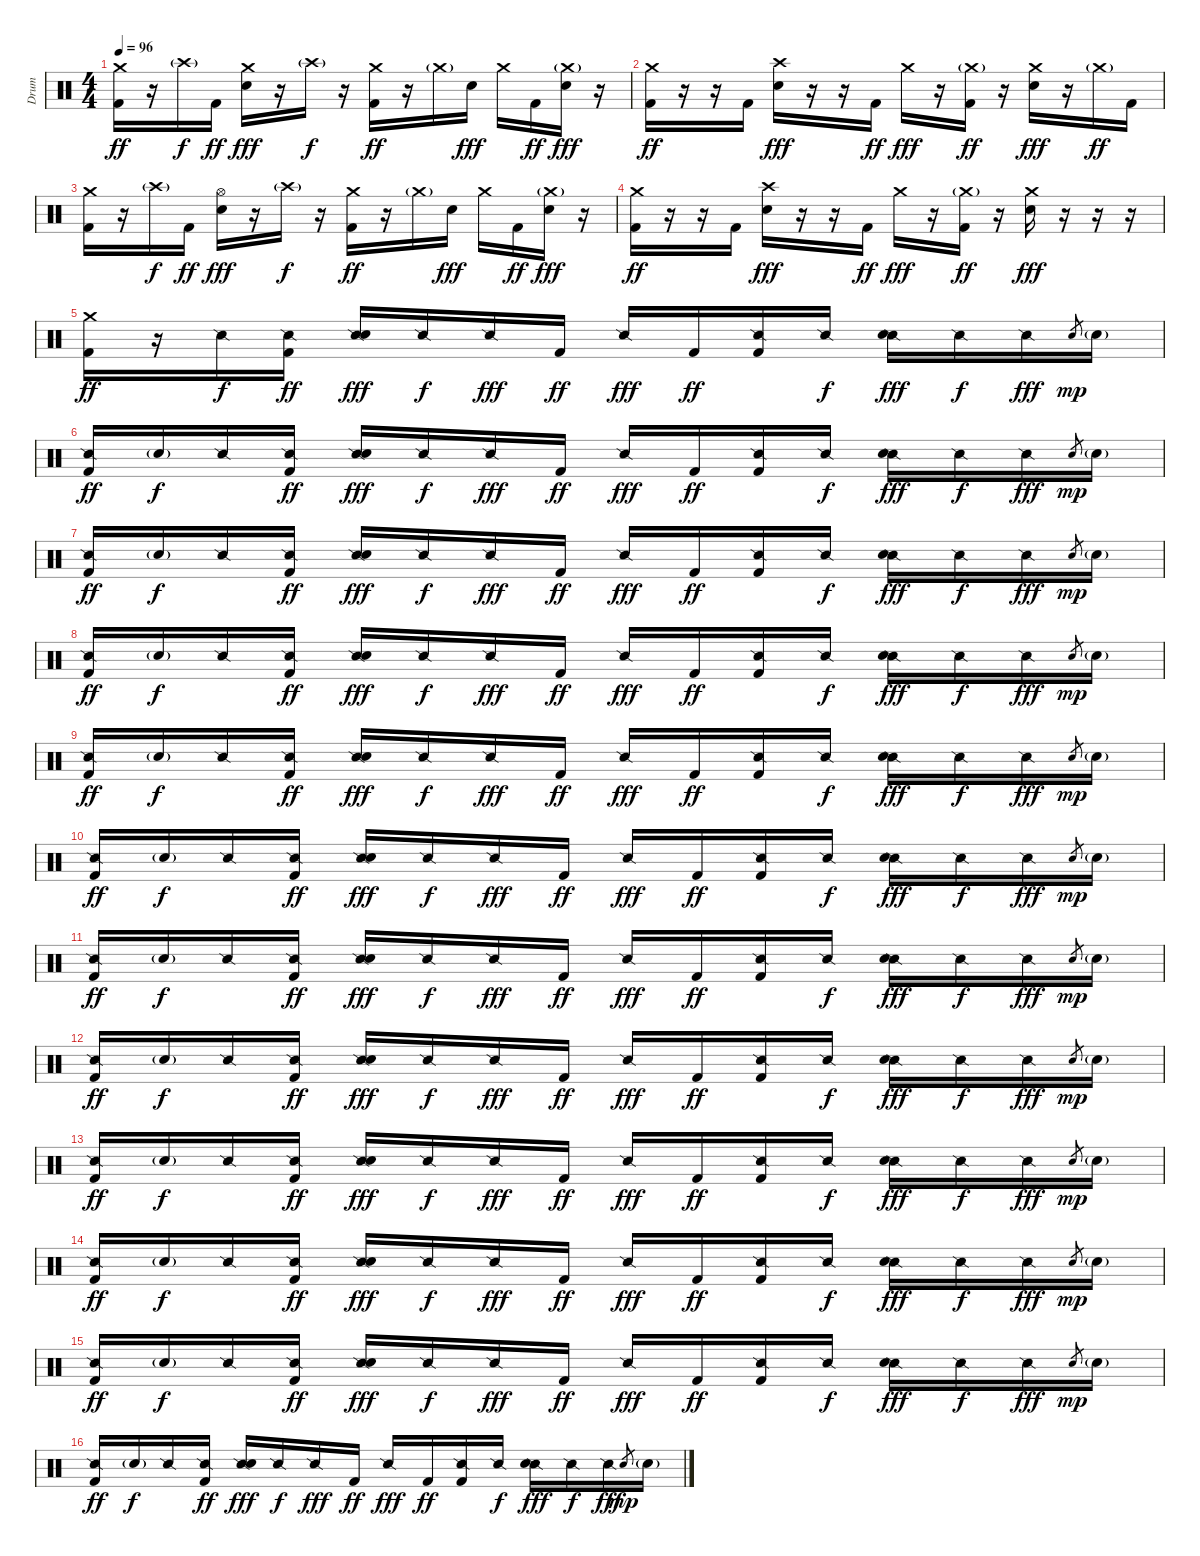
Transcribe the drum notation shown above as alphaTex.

\track ("Drum" "Drum") {instrument percussion}
\staff {score}
\articulation defaults
\ts (4 4)
\tempo 96
\clef neutral
\ks c
("Crash medium (hit)" "Kick (hit) 2").16{dy ff} r.16 "Crash high (hit)"{g}.16{dy f} "Kick (hit) 2".16{dy ff} ("Crash medium (hit)" "Snare (hit) 2").16{dy fff} r.16 "Crash high (hit)"{g}.16{dy f} r.16 ("Crash medium (hit)" "Kick (hit) 2").16{dy ff} r.16 "Crash medium (hit)"{g}.16 "Snare (hit) 2".16{dy fff} "Crash medium (hit)".16 "Kick (hit) 2".16{dy ff} ("Crash medium (hit)"{g} "Snare (hit) 2").16{dy fff} r.16 |
("Crash medium (hit)" "Kick (hit) 2").16{dy ff} r.16 r.16 "Kick (hit) 2".16 ("Crash high (hit)" "Snare (hit) 2").16{dy fff} r.16 r.16 "Kick (hit) 2".16{dy ff} "Crash medium (hit)".16{dy fff} r.16 ("Crash medium (hit)"{g} "Kick (hit) 2").16{dy ff} r.16 ("Crash medium (hit)" "Snare (hit) 2").16{dy fff} r.16 "Crash medium (hit)"{g}.16{dy ff} "Kick (hit) 2".16 |
("Crash medium (hit)" "Kick (hit) 2").16 r.16 "Crash high (hit)"{g}.16{dy f} "Kick (hit) 2".16{dy ff} ("Hi-Hat (open)" "Snare (hit) 2").16{dy fff} r.16 "Crash high (hit)"{g}.16{dy f} r.16 ("Crash medium (hit)" "Kick (hit) 2").16{dy ff} r.16 "Crash medium (hit)"{g}.16 "Snare (hit) 2".16{dy fff} "Crash medium (hit)".16 "Kick (hit) 2".16{dy ff} ("Crash medium (hit)"{g} "Snare (hit) 2").16{dy fff} r.16 |
("Crash medium (hit)" "Kick (hit) 2").16{dy ff} r.16 r.16 "Kick (hit) 2".16 ("Crash high (hit)" "Snare (hit) 2").16{dy fff} r.16 r.16 "Kick (hit) 2".16{dy ff} "Crash medium (hit)".16{dy fff} r.16 ("Crash medium (hit)"{g} "Kick (hit) 2").16{dy ff} r.16 ("Crash medium (hit)" "Snare (hit) 2").16{dy fff} r.16 r.16 r.16 |
("Crash medium (hit)" "Kick (hit) 2").16{dy ff} r.16 "Snare (side stick) 2".16{dy f} ("Snare (side stick) 2" "Kick (hit) 2").16{dy ff} ("Snare (side stick) 2" "Snare (hit) 2").16{dy fff} "Snare (side stick) 2".16{dy f} "Snare (side stick) 2".16{dy fff} "Kick (hit) 2".16{dy ff} "Snare (side stick) 2".16{dy fff} "Kick (hit) 2".16{dy ff} ("Snare (side stick) 2" "Kick (hit) 2").16 "Snare (side stick) 2".16{dy f} ("Snare (side stick) 2" "Snare (hit) 2").16{dy fff} "Snare (side stick) 2".16{dy f} "Snare (side stick) 2".16{dy fff} "Snare (hit) 2".8{gr dy mp} "Snare (hit) 2"{g}.16 |
("Snare (side stick) 2" "Kick (hit) 2").16{dy ff} "Snare (hit) 2"{g}.16{dy f} "Snare (side stick) 2".16 ("Snare (side stick) 2" "Kick (hit) 2").16{dy ff} ("Snare (side stick) 2" "Snare (hit) 2").16{dy fff} "Snare (side stick) 2".16{dy f} "Snare (side stick) 2".16{dy fff} "Kick (hit) 2".16{dy ff} "Snare (side stick) 2".16{dy fff} "Kick (hit) 2".16{dy ff} ("Snare (side stick) 2" "Kick (hit) 2").16 "Snare (side stick) 2".16{dy f} ("Snare (side stick) 2" "Snare (hit) 2").16{dy fff} "Snare (side stick) 2".16{dy f} "Snare (side stick) 2".16{dy fff} "Snare (hit) 2".8{gr dy mp} "Snare (hit) 2"{g}.16 |
("Snare (side stick) 2" "Kick (hit) 2").16{dy ff} "Snare (hit) 2"{g}.16{dy f} "Snare (side stick) 2".16 ("Snare (side stick) 2" "Kick (hit) 2").16{dy ff} ("Snare (side stick) 2" "Snare (hit) 2").16{dy fff} "Snare (side stick) 2".16{dy f} "Snare (side stick) 2".16{dy fff} "Kick (hit) 2".16{dy ff} "Snare (side stick) 2".16{dy fff} "Kick (hit) 2".16{dy ff} ("Snare (side stick) 2" "Kick (hit) 2").16 "Snare (side stick) 2".16{dy f} ("Snare (side stick) 2" "Snare (hit) 2").16{dy fff} "Snare (side stick) 2".16{dy f} "Snare (side stick) 2".16{dy fff} "Snare (hit) 2".8{gr dy mp} "Snare (hit) 2"{g}.16 |
("Snare (side stick) 2" "Kick (hit) 2").16{dy ff} "Snare (hit) 2"{g}.16{dy f} "Snare (side stick) 2".16 ("Snare (side stick) 2" "Kick (hit) 2").16{dy ff} ("Snare (side stick) 2" "Snare (hit) 2").16{dy fff} "Snare (side stick) 2".16{dy f} "Snare (side stick) 2".16{dy fff} "Kick (hit) 2".16{dy ff} "Snare (side stick) 2".16{dy fff} "Kick (hit) 2".16{dy ff} ("Snare (side stick) 2" "Kick (hit) 2").16 "Snare (side stick) 2".16{dy f} ("Snare (side stick) 2" "Snare (hit) 2").16{dy fff} "Snare (side stick) 2".16{dy f} "Snare (side stick) 2".16{dy fff} "Snare (hit) 2".8{gr dy mp} "Snare (hit) 2"{g}.16 |
("Snare (side stick) 2" "Kick (hit) 2").16{dy ff} "Snare (hit) 2"{g}.16{dy f} "Snare (side stick) 2".16 ("Snare (side stick) 2" "Kick (hit) 2").16{dy ff} ("Snare (side stick) 2" "Snare (hit) 2").16{dy fff} "Snare (side stick) 2".16{dy f} "Snare (side stick) 2".16{dy fff} "Kick (hit) 2".16{dy ff} "Snare (side stick) 2".16{dy fff} "Kick (hit) 2".16{dy ff} ("Snare (side stick) 2" "Kick (hit) 2").16 "Snare (side stick) 2".16{dy f} ("Snare (side stick) 2" "Snare (hit) 2").16{dy fff} "Snare (side stick) 2".16{dy f} "Snare (side stick) 2".16{dy fff} "Snare (hit) 2".8{gr dy mp} "Snare (hit) 2"{g}.16 |
("Snare (side stick) 2" "Kick (hit) 2").16{dy ff} "Snare (hit) 2"{g}.16{dy f} "Snare (side stick) 2".16 ("Snare (side stick) 2" "Kick (hit) 2").16{dy ff} ("Snare (side stick) 2" "Snare (hit) 2").16{dy fff} "Snare (side stick) 2".16{dy f} "Snare (side stick) 2".16{dy fff} "Kick (hit) 2".16{dy ff} "Snare (side stick) 2".16{dy fff} "Kick (hit) 2".16{dy ff} ("Snare (side stick) 2" "Kick (hit) 2").16 "Snare (side stick) 2".16{dy f} ("Snare (side stick) 2" "Snare (hit) 2").16{dy fff} "Snare (side stick) 2".16{dy f} "Snare (side stick) 2".16{dy fff} "Snare (hit) 2".8{gr dy mp} "Snare (hit) 2"{g}.16 |
("Snare (side stick) 2" "Kick (hit) 2").16{dy ff} "Snare (hit) 2"{g}.16{dy f} "Snare (side stick) 2".16 ("Snare (side stick) 2" "Kick (hit) 2").16{dy ff} ("Snare (side stick) 2" "Snare (hit) 2").16{dy fff} "Snare (side stick) 2".16{dy f} "Snare (side stick) 2".16{dy fff} "Kick (hit) 2".16{dy ff} "Snare (side stick) 2".16{dy fff} "Kick (hit) 2".16{dy ff} ("Snare (side stick) 2" "Kick (hit) 2").16 "Snare (side stick) 2".16{dy f} ("Snare (side stick) 2" "Snare (hit) 2").16{dy fff} "Snare (side stick) 2".16{dy f} "Snare (side stick) 2".16{dy fff} "Snare (hit) 2".8{gr dy mp} "Snare (hit) 2"{g}.16 |
("Snare (side stick) 2" "Kick (hit) 2").16{dy ff} "Snare (hit) 2"{g}.16{dy f} "Snare (side stick) 2".16 ("Snare (side stick) 2" "Kick (hit) 2").16{dy ff} ("Snare (side stick) 2" "Snare (hit) 2").16{dy fff} "Snare (side stick) 2".16{dy f} "Snare (side stick) 2".16{dy fff} "Kick (hit) 2".16{dy ff} "Snare (side stick) 2".16{dy fff} "Kick (hit) 2".16{dy ff} ("Snare (side stick) 2" "Kick (hit) 2").16 "Snare (side stick) 2".16{dy f} ("Snare (side stick) 2" "Snare (hit) 2").16{dy fff} "Snare (side stick) 2".16{dy f} "Snare (side stick) 2".16{dy fff} "Snare (hit) 2".8{gr dy mp} "Snare (hit) 2"{g}.16 |
("Snare (side stick) 2" "Kick (hit) 2").16{dy ff} "Snare (hit) 2"{g}.16{dy f} "Snare (side stick) 2".16 ("Snare (side stick) 2" "Kick (hit) 2").16{dy ff} ("Snare (side stick) 2" "Snare (hit) 2").16{dy fff} "Snare (side stick) 2".16{dy f} "Snare (side stick) 2".16{dy fff} "Kick (hit) 2".16{dy ff} "Snare (side stick) 2".16{dy fff} "Kick (hit) 2".16{dy ff} ("Snare (side stick) 2" "Kick (hit) 2").16 "Snare (side stick) 2".16{dy f} ("Snare (side stick) 2" "Snare (hit) 2").16{dy fff} "Snare (side stick) 2".16{dy f} "Snare (side stick) 2".16{dy fff} "Snare (hit) 2".8{gr dy mp} "Snare (hit) 2"{g}.16 |
("Snare (side stick) 2" "Kick (hit) 2").16{dy ff} "Snare (hit) 2"{g}.16{dy f} "Snare (side stick) 2".16 ("Snare (side stick) 2" "Kick (hit) 2").16{dy ff} ("Snare (side stick) 2" "Snare (hit) 2").16{dy fff} "Snare (side stick) 2".16{dy f} "Snare (side stick) 2".16{dy fff} "Kick (hit) 2".16{dy ff} "Snare (side stick) 2".16{dy fff} "Kick (hit) 2".16{dy ff} ("Snare (side stick) 2" "Kick (hit) 2").16 "Snare (side stick) 2".16{dy f} ("Snare (side stick) 2" "Snare (hit) 2").16{dy fff} "Snare (side stick) 2".16{dy f} "Snare (side stick) 2".16{dy fff} "Snare (hit) 2".8{gr dy mp} "Snare (hit) 2"{g}.16 |
("Snare (side stick) 2" "Kick (hit) 2").16{dy ff} "Snare (hit) 2"{g}.16{dy f} "Snare (side stick) 2".16 ("Snare (side stick) 2" "Kick (hit) 2").16{dy ff} ("Snare (side stick) 2" "Snare (hit) 2").16{dy fff} "Snare (side stick) 2".16{dy f} "Snare (side stick) 2".16{dy fff} "Kick (hit) 2".16{dy ff} "Snare (side stick) 2".16{dy fff} "Kick (hit) 2".16{dy ff} ("Snare (side stick) 2" "Kick (hit) 2").16 "Snare (side stick) 2".16{dy f} ("Snare (side stick) 2" "Snare (hit) 2").16{dy fff} "Snare (side stick) 2".16{dy f} "Snare (side stick) 2".16{dy fff} "Snare (hit) 2".8{gr dy mp} "Snare (hit) 2"{g}.16 |
("Snare (side stick) 2" "Kick (hit) 2").16{dy ff} "Snare (hit) 2"{g}.16{dy f} "Snare (side stick) 2".16 ("Snare (side stick) 2" "Kick (hit) 2").16{dy ff} ("Snare (side stick) 2" "Snare (hit) 2").16{dy fff} "Snare (side stick) 2".16{dy f} "Snare (side stick) 2".16{dy fff} "Kick (hit) 2".16{dy ff} "Snare (side stick) 2".16{dy fff} "Kick (hit) 2".16{dy ff} ("Snare (side stick) 2" "Kick (hit) 2").16 "Snare (side stick) 2".16{dy f} ("Snare (side stick) 2" "Snare (hit) 2").16{dy fff} "Snare (side stick) 2".16{dy f} "Snare (side stick) 2".16{dy fff} "Snare (hit) 2".8{gr dy mp} "Snare (hit) 2"{g}.16
